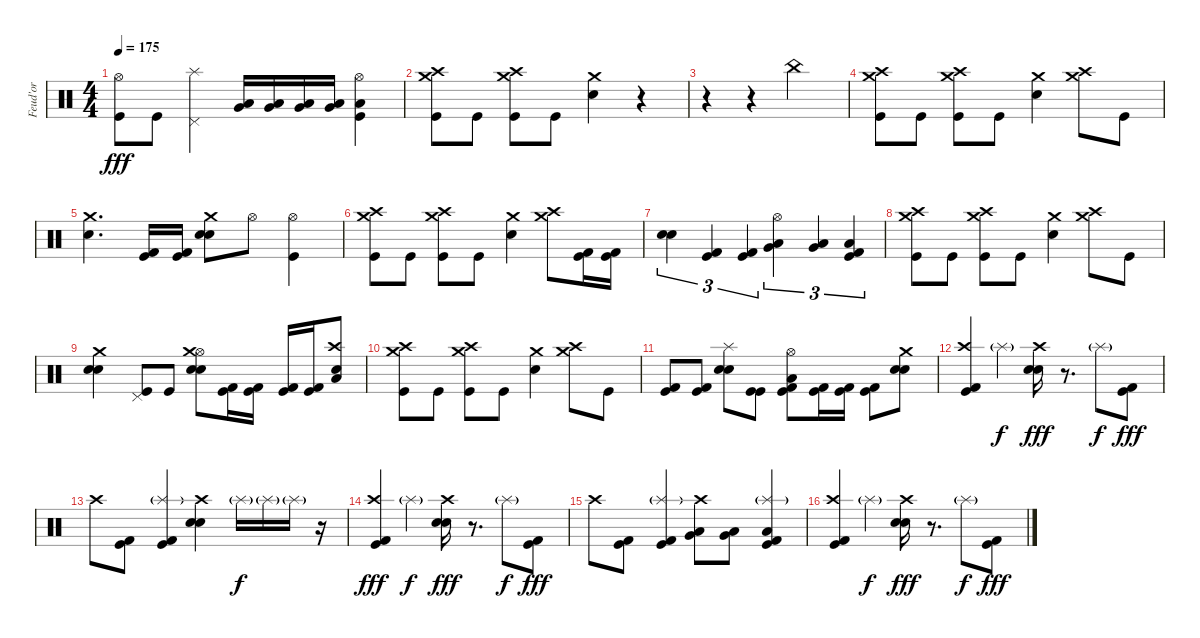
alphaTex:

\track ("Feud'or" "Feud'or") {instrument percussion}
\staff {score}
\articulation defaults
\ts (4 4)
\tempo 175
\clef neutral
\ks c
("Hi-Hat (open)" "Kick (hit)").8{dy fff} "Kick (hit)".8 ("Pedal Hi-Hat (hit)" "Splash (hit)").4 ("Low Tom (hit)" "Very Low Tom (hit)").16 ("Low Tom (hit)" "Very Low Tom (hit)").16 ("Very Low Tom (hit)" "Low Floor Tom (hit)").16 ("Very Low Tom (hit)" "Low Floor Tom (hit)").16 ("Hi-Hat (open)" "Low Floor Tom (hit)" "Kick (hit)").4 |
("Crash medium (hit)" "Crash high (hit)" "Kick (hit)").8 "Kick (hit)".8 ("Crash medium (hit)" "Crash high (hit)" "Kick (hit)").8 "Kick (hit)".8 ("Crash medium (hit)" "Snare (hit) 2").4 r.4 |
r.4 r.4 "China (hit)".2 |
("Crash medium (hit)" "Crash high (hit)" "Kick (hit)").8 "Kick (hit)".8 ("Crash medium (hit)" "Crash high (hit)" "Kick (hit)").8 "Kick (hit)".8 ("Crash medium (hit)" "Snare (hit) 2").4 ("Crash medium (hit)" "Crash high (hit)").8 "Kick (hit)".8 |
("Crash medium (hit)" "Snare (hit) 2").4{d} ("Kick (hit) 2" "Kick (hit)").16 ("Kick (hit) 2" "Kick (hit)").16 ("Crash medium (hit)" "Electric Snare (hit)" "Snare (hit) 2").8 "Hi-Hat (open)".8 ("Hi-Hat (open)" "Kick (hit)").4 |
("Crash medium (hit)" "Crash high (hit)" "Kick (hit)").8 "Kick (hit)".8 ("Crash medium (hit)" "Crash high (hit)" "Kick (hit)").8 "Kick (hit)".8 ("Crash medium (hit)" "Snare (hit) 2").4 ("Crash medium (hit)" "Crash high (hit)").8 ("Kick (hit) 2" "Kick (hit)").16 ("Kick (hit) 2" "Kick (hit)").16 |
("Electric Snare (hit)" "Snare (hit) 2").4{tu (3 2)} ("Kick (hit) 2" "Kick (hit)").4{tu (3 2)} ("Kick (hit) 2" "Kick (hit)").4{tu (3 2)} ("Hi-Hat (open)" "Low Tom (hit)" "Very Low Tom (hit)").4{tu (3 2)} ("Very Low Tom (hit)" "Low Floor Tom (hit)").4{tu (3 2)} ("Low Floor Tom (hit)" "Kick (hit) 2" "Kick (hit)").4{tu (3 2)} |
("Crash medium (hit)" "Crash high (hit)" "Kick (hit)").8 "Kick (hit)".8 ("Crash medium (hit)" "Crash high (hit)" "Kick (hit)").8 "Kick (hit)".8 ("Crash medium (hit)" "Snare (hit) 2").4 ("Crash medium (hit)" "Crash high (hit)").8 "Kick (hit)".8 |
("Crash medium (hit)" "Electric Snare (hit)" "Snare (hit) 2").4 ("Pedal Hi-Hat (hit)" "Kick (hit)").8 "Kick (hit)".8 ("Hi-Hat (open)" "Crash medium (hit)" "Electric Snare (hit)" "Snare (hit) 2").8 ("Kick (hit) 2" "Kick (hit)").16 ("Kick (hit) 2" "Kick (hit)").16 ("Kick (hit) 2" "Kick (hit)").16 ("Kick (hit) 2" "Kick (hit)").16 ("Crash high (hit)" "Low Floor Tom (hit)" "Snare (hit) 2").8 |
("Crash medium (hit)" "Crash high (hit)" "Kick (hit)").8 "Kick (hit)".8 ("Crash medium (hit)" "Crash high (hit)" "Kick (hit)").8 "Kick (hit)".8 ("Crash medium (hit)" "Snare (hit) 2").4 ("Crash medium (hit)" "Crash high (hit)").8 "Kick (hit)".8 |
("Kick (hit) 2" "Kick (hit)").8 ("Kick (hit) 2" "Kick (hit)").8 ("Splash (hit)" "Electric Snare (hit)" "Snare (hit) 2").8 ("Kick (hit)" "Kick (hit)").8 ("Hi-Hat (open)" "Low Floor Tom (hit)" "Kick (hit) 2" "Kick (hit)").8 ("Kick (hit) 2" "Kick (hit)").16 ("Kick (hit) 2" "Kick (hit)").16 ("Kick (hit) 2" "Kick (hit)").8 ("Crash medium (hit)" "Electric Snare (hit)" "Snare (hit) 2").8 |
("Crash high (hit)" "Kick (hit) 2" "Kick (hit)").4 "Splash (hit)"{g}.4{dy f} ("Crash high (hit)" "Electric Snare (hit)" "Snare (hit) 2").16{dy fff} r.8{d} "Splash (hit)"{g}.8{dy f} ("Kick (hit) 2" "Kick (hit)").8{dy fff} |
"Crash high (hit)".8 ("Kick (hit) 2" "Kick (hit)").8 ("Splash (hit)"{g} "Kick (hit) 2" "Kick (hit)").4 ("Crash high (hit)" "Electric Snare (hit)" "Snare (hit) 2").4 "Splash (hit)"{g}.16{dy f} "Splash (hit)"{g}.16 "Splash (hit)"{g}.16 r.16 |
("Crash high (hit)" "Kick (hit) 2" "Kick (hit)").4{dy fff} "Splash (hit)"{g}.4{dy f} ("Crash high (hit)" "Electric Snare (hit)" "Snare (hit) 2").16{dy fff} r.8{d} "Splash (hit)"{g}.8{dy f} ("Kick (hit) 2" "Kick (hit)").8{dy fff} |
"Crash high (hit)".8 ("Kick (hit) 2" "Kick (hit)").8 ("Splash (hit)"{g} "Kick (hit) 2" "Kick (hit)").4 ("Crash high (hit)" "Low Tom (hit)" "Very Low Tom (hit)").8 ("Low Tom (hit)" "Very Low Tom (hit)").8 ("Splash (hit)"{g} "Low Floor Tom (hit)" "Kick (hit) 2" "Kick (hit)").4 |
("Crash high (hit)" "Kick (hit) 2" "Kick (hit)").4 "Splash (hit)"{g}.4{dy f} ("Crash high (hit)" "Electric Snare (hit)" "Snare (hit) 2").16{dy fff} r.8{d} "Splash (hit)"{g}.8{dy f} ("Kick (hit) 2" "Kick (hit)").8{dy fff}
